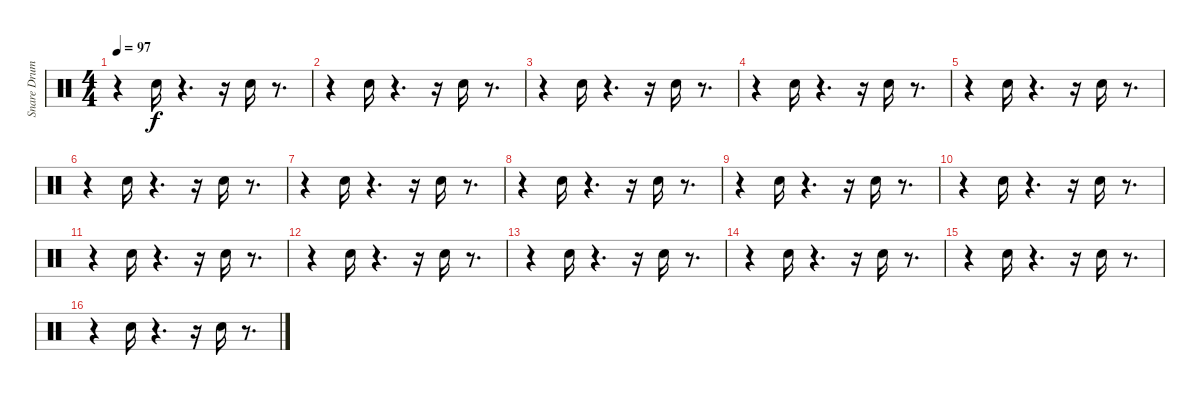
\track ("Snare Drum" "Snare Drum") {instrument percussion}
\staff {score}
\articulation defaults
\ts (4 4)
\tempo 97
\clef neutral
\ks c
r.4{dy f} "Snare (hit) 2".16 r.4{d} r.16 "Snare (hit) 2".16 r.8{d} |
r.4 "Snare (hit) 2".16 r.4{d} r.16 "Snare (hit) 2".16 r.8{d} |
r.4 "Snare (hit) 2".16 r.4{d} r.16 "Snare (hit) 2".16 r.8{d} |
r.4 "Snare (hit) 2".16 r.4{d} r.16 "Snare (hit) 2".16 r.8{d} |
r.4 "Snare (hit) 2".16 r.4{d} r.16 "Snare (hit) 2".16 r.8{d} |
r.4 "Snare (hit) 2".16 r.4{d} r.16 "Snare (hit) 2".16 r.8{d} |
r.4 "Snare (hit) 2".16 r.4{d} r.16 "Snare (hit) 2".16 r.8{d} |
r.4 "Snare (hit) 2".16 r.4{d} r.16 "Snare (hit) 2".16 r.8{d} |
r.4 "Snare (hit) 2".16 r.4{d} r.16 "Snare (hit) 2".16 r.8{d} |
r.4 "Snare (hit) 2".16 r.4{d} r.16 "Snare (hit) 2".16 r.8{d} |
r.4 "Snare (hit) 2".16 r.4{d} r.16 "Snare (hit) 2".16 r.8{d} |
r.4 "Snare (hit) 2".16 r.4{d} r.16 "Snare (hit) 2".16 r.8{d} |
r.4 "Snare (hit) 2".16 r.4{d} r.16 "Snare (hit) 2".16 r.8{d} |
r.4 "Snare (hit) 2".16 r.4{d} r.16 "Snare (hit) 2".16 r.8{d} |
r.4 "Snare (hit) 2".16 r.4{d} r.16 "Snare (hit) 2".16 r.8{d} |
r.4 "Snare (hit) 2".16 r.4{d} r.16 "Snare (hit) 2".16 r.8{d}
